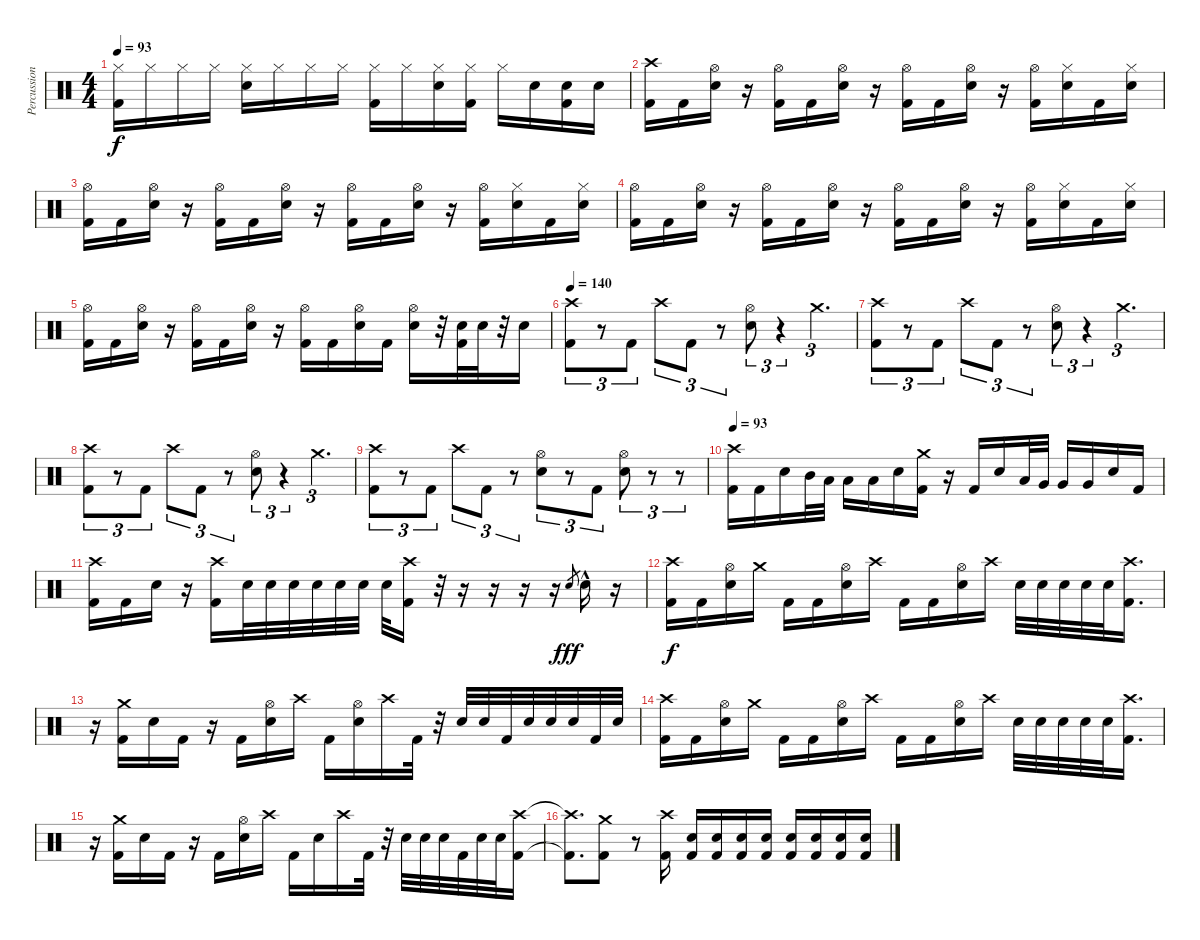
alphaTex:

\track ("Percussion" "Percussion") {instrument percussion}
\staff {score}
\articulation defaults
\ts (4 4)
\tempo 93
\clef neutral
\ks c
("Hi-Hat (closed)" "Kick (hit) 2").16{dy f} "Hi-Hat (closed)".16 "Hi-Hat (closed)".16 "Hi-Hat (closed)".16 ("Hi-Hat (closed)" "Electric Snare (hit)").16 "Hi-Hat (closed)".16 "Hi-Hat (closed)".16 "Hi-Hat (closed)".16 ("Hi-Hat (closed)" "Kick (hit) 2").16 "Hi-Hat (closed)".16 ("Hi-Hat (closed)" "Electric Snare (hit)").16 ("Hi-Hat (closed)" "Kick (hit) 2").16 "Hi-Hat (closed)".16 "Electric Snare (hit)".16 ("Electric Snare (hit)" "Kick (hit) 2").16 "Electric Snare (hit)".16 |
("Crash high (hit)" "Kick (hit) 2").16 "Kick (hit) 2".16 ("Hi-Hat (open)" "Electric Snare (hit)").16 r.16 ("Hi-Hat (open)" "Kick (hit) 2").16 "Kick (hit) 2".16 ("Hi-Hat (open)" "Electric Snare (hit)").16 r.16 ("Hi-Hat (open)" "Kick (hit) 2").16 "Kick (hit) 2".16 ("Hi-Hat (open)" "Electric Snare (hit)").16 r.16 ("Hi-Hat (open)" "Kick (hit) 2").16 ("Hi-Hat (closed)" "Electric Snare (hit)").16 "Kick (hit) 2".16 ("Hi-Hat (closed)" "Electric Snare (hit)").16 |
("Hi-Hat (open)" "Kick (hit) 2").16 "Kick (hit) 2".16 ("Hi-Hat (open)" "Electric Snare (hit)").16 r.16 ("Hi-Hat (open)" "Kick (hit) 2").16 "Kick (hit) 2".16 ("Hi-Hat (open)" "Electric Snare (hit)").16 r.16 ("Hi-Hat (open)" "Kick (hit) 2").16 "Kick (hit) 2".16 ("Hi-Hat (open)" "Electric Snare (hit)").16 r.16 ("Hi-Hat (open)" "Kick (hit) 2").16 ("Hi-Hat (closed)" "Electric Snare (hit)").16 "Kick (hit) 2".16 ("Hi-Hat (closed)" "Electric Snare (hit)").16 |
("Hi-Hat (open)" "Kick (hit) 2").16 "Kick (hit) 2".16 ("Hi-Hat (open)" "Electric Snare (hit)").16 r.16 ("Hi-Hat (open)" "Kick (hit) 2").16 "Kick (hit) 2".16 ("Hi-Hat (open)" "Electric Snare (hit)").16 r.16 ("Hi-Hat (open)" "Kick (hit) 2").16 "Kick (hit) 2".16 ("Hi-Hat (open)" "Electric Snare (hit)").16 r.16 ("Hi-Hat (open)" "Kick (hit) 2").16 ("Hi-Hat (closed)" "Electric Snare (hit)").16 "Kick (hit) 2".16 ("Hi-Hat (closed)" "Electric Snare (hit)").16 |
("Hi-Hat (open)" "Kick (hit) 2").16 "Kick (hit) 2".16 ("Hi-Hat (open)" "Electric Snare (hit)").16 r.16 ("Hi-Hat (open)" "Kick (hit) 2").16 "Kick (hit) 2".16 ("Hi-Hat (open)" "Electric Snare (hit)").16 r.16 ("Hi-Hat (open)" "Kick (hit) 2").16 "Kick (hit) 2".16 ("Hi-Hat (open)" "Electric Snare (hit)").16 "Kick (hit) 2".16 ("Hi-Hat (open)" "Electric Snare (hit)").16 r.32 ("Electric Snare (hit)" "Kick (hit) 2").32 "Electric Snare (hit)".32 r.32 "Electric Snare (hit)".16 |
\tempo 140
("Crash high (hit)" "Kick (hit) 2").8{tu (3 2)} r.8{tu (3 2)} "Kick (hit) 2".8{tu (3 2)} "Crash high (hit)".8{tu (3 2)} "Kick (hit) 2".8{tu (3 2)} r.8{tu (3 2)} ("Hi-Hat (open)" "Electric Snare (hit)").8{tu (3 2)} r.4{tu (3 2)} "Crash medium (hit)".4{d tu (3 2)} |
("Crash high (hit)" "Kick (hit) 2").8{tu (3 2)} r.8{tu (3 2)} "Kick (hit) 2".8{tu (3 2)} "Crash high (hit)".8{tu (3 2)} "Kick (hit) 2".8{tu (3 2)} r.8{tu (3 2)} ("Hi-Hat (open)" "Electric Snare (hit)").8{tu (3 2)} r.4{tu (3 2)} "Crash medium (hit)".4{d tu (3 2)} |
("Crash high (hit)" "Kick (hit) 2").8{tu (3 2)} r.8{tu (3 2)} "Kick (hit) 2".8{tu (3 2)} "Crash high (hit)".8{tu (3 2)} "Kick (hit) 2".8{tu (3 2)} r.8{tu (3 2)} ("Hi-Hat (open)" "Electric Snare (hit)").8{tu (3 2)} r.4{tu (3 2)} "Crash medium (hit)".4{d tu (3 2)} |
("Crash high (hit)" "Kick (hit) 2").8{tu (3 2)} r.8{tu (3 2)} "Kick (hit) 2".8{tu (3 2)} "Crash high (hit)".8{tu (3 2)} "Kick (hit) 2".8{tu (3 2)} r.8{tu (3 2)} ("Hi-Hat (open)" "Electric Snare (hit)").8{tu (3 2)} r.8{tu (3 2)} "Kick (hit) 2".8{tu (3 2)} ("Hi-Hat (open)" "Electric Snare (hit)").8{tu (3 2)} r.8{tu (3 2)} r.8{tu (3 2)} |
\tempo 93
("Crash high (hit)" "Kick (hit) 2").16 "Kick (hit) 2".16 "Electric Snare (hit)".16 "Mid Tom (hit)".32 "Low Tom (hit)".32 "Low Tom (hit)".16 "Low Tom (hit)".16 "Electric Snare (hit)".16 ("Crash medium (hit)" "Kick (hit) 2").16 r.16 "Kick (hit) 2".16 "Electric Snare (hit)".16 "Low Tom (hit)".32 "Very Low Tom (hit)".32 "Very Low Tom (hit)".16 "Very Low Tom (hit)".16 "Electric Snare (hit)".16 "Kick (hit) 2".16 |
("Crash high (hit)" "Kick (hit) 2").16 "Kick (hit) 2".16 "Electric Snare (hit)".16 r.16 ("Crash high (hit)" "Kick (hit) 2").16 "Electric Snare (hit)".32 "Electric Snare (hit)".32 "Electric Snare (hit)".32 "Electric Snare (hit)".32 "Electric Snare (hit)".32 "Electric Snare (hit)".32 "Electric Snare (hit)".32 ("Crash high (hit)" "Kick (hit) 2").16 r.32 r.16 r.16 r.16 r.16 "Electric Snare (hit)".8{gr dy fff} "Electric Snare (hit)"{hac}.16 r.16 |
("Crash high (hit)" "Kick (hit) 2").16{dy f} "Kick (hit) 2".16 ("Hi-Hat (open)" "Electric Snare (hit)").16 "Crash medium (hit)".16 "Kick (hit) 2".16 "Kick (hit) 2".16 ("Hi-Hat (open)" "Electric Snare (hit)").16 "Crash high (hit)".16 "Kick (hit) 2".16 "Kick (hit) 2".16 ("Hi-Hat (open)" "Electric Snare (hit)").16 "Crash high (hit)".16 "Electric Snare (hit)".32 "Electric Snare (hit)".32 "Electric Snare (hit)".32 "Electric Snare (hit)".32 "Electric Snare (hit)".32 ("Crash high (hit)" "Kick (hit) 2").16{d} |
r.16 ("Crash medium (hit)" "Kick (hit) 2").16 "Electric Snare (hit)".16 "Kick (hit) 2".16 r.16 "Kick (hit) 2".16 ("Hi-Hat (open)" "Electric Snare (hit)").16 "Crash high (hit)".16 "Kick (hit) 2".16 ("Hi-Hat (open)" "Electric Snare (hit)").16 "Crash high (hit)".16 "Kick (hit) 2".32 r.32 "Electric Snare (hit)".32 "Electric Snare (hit)".32 "Kick (hit) 2".32 "Electric Snare (hit)".32 "Electric Snare (hit)".32 "Electric Snare (hit)".32 "Kick (hit) 2".32 "Electric Snare (hit)".32 |
("Crash high (hit)" "Kick (hit) 2").16 "Kick (hit) 2".16 ("Hi-Hat (open)" "Electric Snare (hit)").16 "Crash medium (hit)".16 "Kick (hit) 2".16 "Kick (hit) 2".16 ("Hi-Hat (open)" "Electric Snare (hit)").16 "Crash high (hit)".16 "Kick (hit) 2".16 "Kick (hit) 2".16 ("Hi-Hat (open)" "Electric Snare (hit)").16 "Crash high (hit)".16 "Electric Snare (hit)".32 "Electric Snare (hit)".32 "Electric Snare (hit)".32 "Electric Snare (hit)".32 "Electric Snare (hit)".32 ("Crash high (hit)" "Kick (hit) 2").16{d} |
r.16 ("Crash medium (hit)" "Kick (hit) 2").16 "Electric Snare (hit)".16 "Kick (hit) 2".16 r.16 "Kick (hit) 2".16 ("Hi-Hat (open)" "Electric Snare (hit)").16 "Crash high (hit)".16 "Kick (hit) 2".16 "Electric Snare (hit)".16 "Crash high (hit)".16 "Kick (hit) 2".32 r.32 "Electric Snare (hit)".32 "Electric Snare (hit)".32 "Electric Snare (hit)".32 "Kick (hit) 2".32 "Electric Snare (hit)".32 "Electric Snare (hit)".32 ("Crash high (hit)" "Kick (hit) 2").16 |
("Crash high (hit)"{t} "Kick (hit) 2"{t}).8{d} ("Crash medium (hit)" "Kick (hit) 2").8 r.8 ("Crash high (hit)" "Kick (hit) 2").16 ("Electric Snare (hit)" "Kick (hit) 2").16 ("Electric Snare (hit)" "Kick (hit) 2").16 ("Electric Snare (hit)" "Kick (hit) 2").16 ("Electric Snare (hit)" "Kick (hit) 2").16 ("Electric Snare (hit)" "Kick (hit) 2").16 ("Electric Snare (hit)" "Kick (hit) 2").16 ("Electric Snare (hit)" "Kick (hit) 2").16 ("Electric Snare (hit)" "Kick (hit) 2").16
